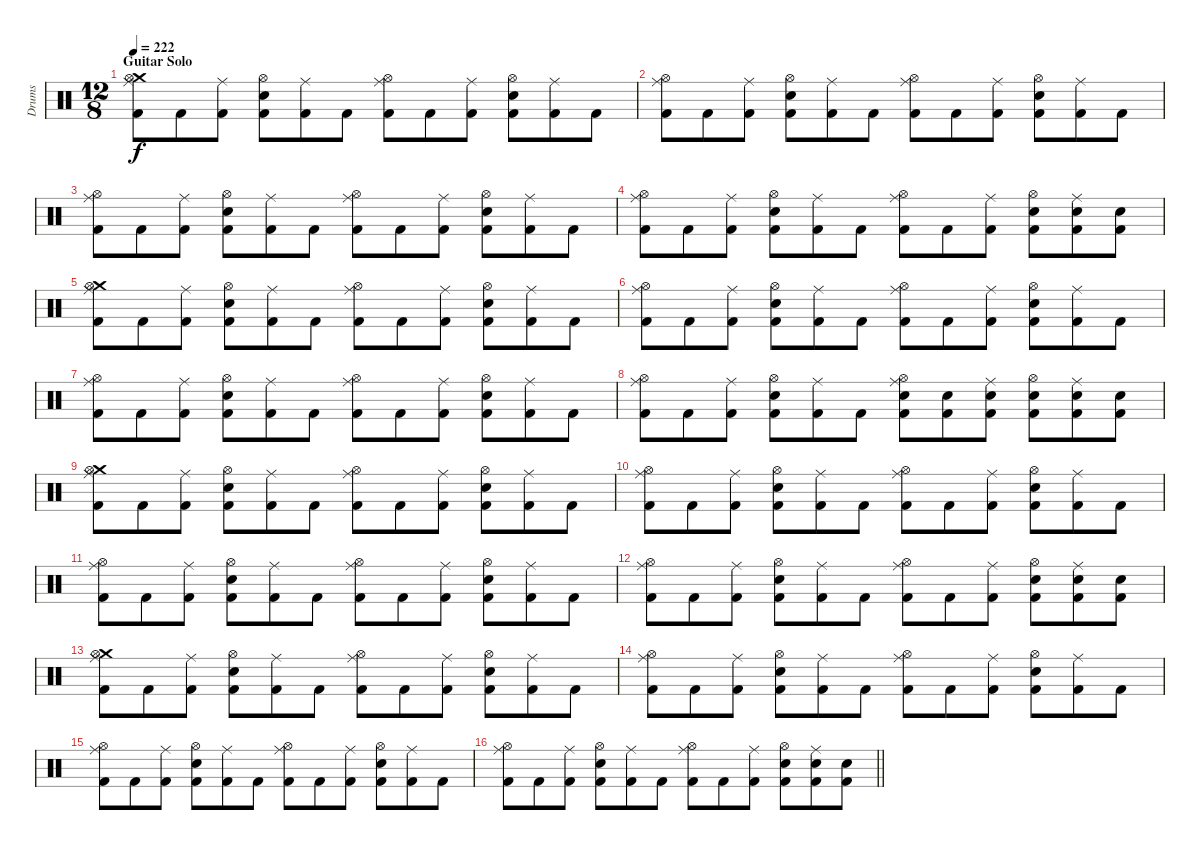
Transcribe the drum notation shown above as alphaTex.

\track ("Drums" "Drums") {instrument percussion}
\staff {score}
\articulation defaults
\ts (12 8)
\section ("" "Guitar Solo")
\tempo 222
\clef neutral
\ks c
("Crash medium (hit)" "Hi-Hat (open)" "Ride (middle)" "Kick (hit) 2").8{dy f} "Kick (hit) 2".8 ("Ride (middle)" "Kick (hit) 2").8 ("Hi-Hat (open)" "Snare (hit) 2" "Kick (hit) 2").8 ("Ride (middle)" "Kick (hit) 2").8 "Kick (hit) 2".8 ("Hi-Hat (open)" "Ride (middle)" "Kick (hit) 2").8 "Kick (hit) 2".8 ("Ride (middle)" "Kick (hit) 2").8 ("Hi-Hat (open)" "Snare (hit) 2" "Kick (hit) 2").8 ("Ride (middle)" "Kick (hit) 2").8 "Kick (hit) 2".8 |
("Hi-Hat (open)" "Ride (middle)" "Kick (hit) 2").8 "Kick (hit) 2".8 ("Ride (middle)" "Kick (hit) 2").8 ("Hi-Hat (open)" "Snare (hit) 2" "Kick (hit) 2").8 ("Ride (middle)" "Kick (hit) 2").8 "Kick (hit) 2".8 ("Hi-Hat (open)" "Ride (middle)" "Kick (hit) 2").8 "Kick (hit) 2".8 ("Ride (middle)" "Kick (hit) 2").8 ("Hi-Hat (open)" "Snare (hit) 2" "Kick (hit) 2").8 ("Ride (middle)" "Kick (hit) 2").8 "Kick (hit) 2".8 |
("Hi-Hat (open)" "Ride (middle)" "Kick (hit) 2").8 "Kick (hit) 2".8 ("Ride (middle)" "Kick (hit) 2").8 ("Hi-Hat (open)" "Snare (hit) 2" "Kick (hit) 2").8 ("Ride (middle)" "Kick (hit) 2").8 "Kick (hit) 2".8 ("Hi-Hat (open)" "Ride (middle)" "Kick (hit) 2").8 "Kick (hit) 2".8 ("Ride (middle)" "Kick (hit) 2").8 ("Hi-Hat (open)" "Snare (hit) 2" "Kick (hit) 2").8 ("Ride (middle)" "Kick (hit) 2").8 "Kick (hit) 2".8 |
("Hi-Hat (open)" "Ride (middle)" "Kick (hit) 2").8 "Kick (hit) 2".8 ("Ride (middle)" "Kick (hit) 2").8 ("Hi-Hat (open)" "Snare (hit) 2" "Kick (hit) 2").8 ("Ride (middle)" "Kick (hit) 2").8 "Kick (hit) 2".8 ("Hi-Hat (open)" "Ride (middle)" "Kick (hit) 2").8 "Kick (hit) 2".8 ("Ride (middle)" "Kick (hit) 2").8 ("Hi-Hat (open)" "Snare (hit) 2" "Kick (hit) 2").8 ("Ride (middle)" "Snare (hit) 2" "Kick (hit) 2").8 ("Snare (hit) 2" "Kick (hit) 2").8 |
("Crash medium (hit)" "Hi-Hat (open)" "Ride (middle)" "Kick (hit) 2").8 "Kick (hit) 2".8 ("Ride (middle)" "Kick (hit) 2").8 ("Hi-Hat (open)" "Snare (hit) 2" "Kick (hit) 2").8 ("Ride (middle)" "Kick (hit) 2").8 "Kick (hit) 2".8 ("Hi-Hat (open)" "Ride (middle)" "Kick (hit) 2").8 "Kick (hit) 2".8 ("Ride (middle)" "Kick (hit) 2").8 ("Hi-Hat (open)" "Snare (hit) 2" "Kick (hit) 2").8 ("Ride (middle)" "Kick (hit) 2").8 "Kick (hit) 2".8 |
("Hi-Hat (open)" "Ride (middle)" "Kick (hit) 2").8 "Kick (hit) 2".8 ("Ride (middle)" "Kick (hit) 2").8 ("Hi-Hat (open)" "Snare (hit) 2" "Kick (hit) 2").8 ("Ride (middle)" "Kick (hit) 2").8 "Kick (hit) 2".8 ("Hi-Hat (open)" "Ride (middle)" "Kick (hit) 2").8 "Kick (hit) 2".8 ("Ride (middle)" "Kick (hit) 2").8 ("Hi-Hat (open)" "Snare (hit) 2" "Kick (hit) 2").8 ("Ride (middle)" "Kick (hit) 2").8 "Kick (hit) 2".8 |
("Hi-Hat (open)" "Ride (middle)" "Kick (hit) 2").8 "Kick (hit) 2".8 ("Ride (middle)" "Kick (hit) 2").8 ("Hi-Hat (open)" "Snare (hit) 2" "Kick (hit) 2").8 ("Ride (middle)" "Kick (hit) 2").8 "Kick (hit) 2".8 ("Hi-Hat (open)" "Ride (middle)" "Kick (hit) 2").8 "Kick (hit) 2".8 ("Ride (middle)" "Kick (hit) 2").8 ("Hi-Hat (open)" "Snare (hit) 2" "Kick (hit) 2").8 ("Ride (middle)" "Kick (hit) 2").8 "Kick (hit) 2".8 |
("Hi-Hat (open)" "Ride (middle)" "Kick (hit) 2").8 "Kick (hit) 2".8 ("Ride (middle)" "Kick (hit) 2").8 ("Hi-Hat (open)" "Snare (hit) 2" "Kick (hit) 2").8 ("Ride (middle)" "Kick (hit) 2").8 "Kick (hit) 2".8 ("Hi-Hat (open)" "Ride (middle)" "Snare (hit) 2" "Kick (hit) 2").8 ("Snare (hit) 2" "Kick (hit) 2").8 ("Ride (middle)" "Snare (hit) 2" "Kick (hit) 2").8 ("Hi-Hat (open)" "Snare (hit) 2" "Kick (hit) 2").8 ("Ride (middle)" "Snare (hit) 2" "Kick (hit) 2").8 ("Snare (hit) 2" "Kick (hit) 2").8 |
("Crash medium (hit)" "Hi-Hat (open)" "Ride (middle)" "Kick (hit) 2").8 "Kick (hit) 2".8 ("Ride (middle)" "Kick (hit) 2").8 ("Hi-Hat (open)" "Snare (hit) 2" "Kick (hit) 2").8 ("Ride (middle)" "Kick (hit) 2").8 "Kick (hit) 2".8 ("Hi-Hat (open)" "Ride (middle)" "Kick (hit) 2").8 "Kick (hit) 2".8 ("Ride (middle)" "Kick (hit) 2").8 ("Hi-Hat (open)" "Snare (hit) 2" "Kick (hit) 2").8 ("Ride (middle)" "Kick (hit) 2").8 "Kick (hit) 2".8 |
("Hi-Hat (open)" "Ride (middle)" "Kick (hit) 2").8 "Kick (hit) 2".8 ("Ride (middle)" "Kick (hit) 2").8 ("Hi-Hat (open)" "Snare (hit) 2" "Kick (hit) 2").8 ("Ride (middle)" "Kick (hit) 2").8 "Kick (hit) 2".8 ("Hi-Hat (open)" "Ride (middle)" "Kick (hit) 2").8 "Kick (hit) 2".8 ("Ride (middle)" "Kick (hit) 2").8 ("Hi-Hat (open)" "Snare (hit) 2" "Kick (hit) 2").8 ("Ride (middle)" "Kick (hit) 2").8 "Kick (hit) 2".8 |
("Hi-Hat (open)" "Ride (middle)" "Kick (hit) 2").8 "Kick (hit) 2".8 ("Ride (middle)" "Kick (hit) 2").8 ("Hi-Hat (open)" "Snare (hit) 2" "Kick (hit) 2").8 ("Ride (middle)" "Kick (hit) 2").8 "Kick (hit) 2".8 ("Hi-Hat (open)" "Ride (middle)" "Kick (hit) 2").8 "Kick (hit) 2".8 ("Ride (middle)" "Kick (hit) 2").8 ("Hi-Hat (open)" "Snare (hit) 2" "Kick (hit) 2").8 ("Ride (middle)" "Kick (hit) 2").8 "Kick (hit) 2".8 |
("Hi-Hat (open)" "Ride (middle)" "Kick (hit) 2").8 "Kick (hit) 2".8 ("Ride (middle)" "Kick (hit) 2").8 ("Hi-Hat (open)" "Snare (hit) 2" "Kick (hit) 2").8 ("Ride (middle)" "Kick (hit) 2").8 "Kick (hit) 2".8 ("Hi-Hat (open)" "Ride (middle)" "Kick (hit) 2").8 "Kick (hit) 2".8 ("Ride (middle)" "Kick (hit) 2").8 ("Hi-Hat (open)" "Snare (hit) 2" "Kick (hit) 2").8 ("Ride (middle)" "Snare (hit) 2" "Kick (hit) 2").8 ("Snare (hit) 2" "Kick (hit) 2").8 |
("Crash medium (hit)" "Hi-Hat (open)" "Ride (middle)" "Kick (hit) 2").8 "Kick (hit) 2".8 ("Ride (middle)" "Kick (hit) 2").8 ("Hi-Hat (open)" "Snare (hit) 2" "Kick (hit) 2").8 ("Ride (middle)" "Kick (hit) 2").8 "Kick (hit) 2".8 ("Hi-Hat (open)" "Ride (middle)" "Kick (hit) 2").8 "Kick (hit) 2".8 ("Ride (middle)" "Kick (hit) 2").8 ("Hi-Hat (open)" "Snare (hit) 2" "Kick (hit) 2").8 ("Ride (middle)" "Kick (hit) 2").8 "Kick (hit) 2".8 |
("Hi-Hat (open)" "Ride (middle)" "Kick (hit) 2").8 "Kick (hit) 2".8 ("Ride (middle)" "Kick (hit) 2").8 ("Hi-Hat (open)" "Snare (hit) 2" "Kick (hit) 2").8 ("Ride (middle)" "Kick (hit) 2").8 "Kick (hit) 2".8 ("Hi-Hat (open)" "Ride (middle)" "Kick (hit) 2").8 "Kick (hit) 2".8 ("Ride (middle)" "Kick (hit) 2").8 ("Hi-Hat (open)" "Snare (hit) 2" "Kick (hit) 2").8 ("Ride (middle)" "Kick (hit) 2").8 "Kick (hit) 2".8 |
("Hi-Hat (open)" "Ride (middle)" "Kick (hit) 2").8 "Kick (hit) 2".8 ("Ride (middle)" "Kick (hit) 2").8 ("Hi-Hat (open)" "Snare (hit) 2" "Kick (hit) 2").8 ("Ride (middle)" "Kick (hit) 2").8 "Kick (hit) 2".8 ("Hi-Hat (open)" "Ride (middle)" "Kick (hit) 2").8 "Kick (hit) 2".8 ("Ride (middle)" "Kick (hit) 2").8 ("Hi-Hat (open)" "Snare (hit) 2" "Kick (hit) 2").8 ("Ride (middle)" "Kick (hit) 2").8 "Kick (hit) 2".8 |
\barLineRight lightlight
("Hi-Hat (open)" "Ride (middle)" "Kick (hit) 2").8 "Kick (hit) 2".8 ("Ride (middle)" "Kick (hit) 2").8 ("Hi-Hat (open)" "Snare (hit) 2" "Kick (hit) 2").8 ("Ride (middle)" "Kick (hit) 2").8 "Kick (hit) 2".8 ("Hi-Hat (open)" "Ride (middle)" "Kick (hit) 2").8 "Kick (hit) 2".8 ("Ride (middle)" "Kick (hit) 2").8 ("Hi-Hat (open)" "Snare (hit) 2" "Kick (hit) 2").8 ("Ride (middle)" "Snare (hit) 2" "Kick (hit) 2").8 ("Snare (hit) 2" "Kick (hit) 2").8
